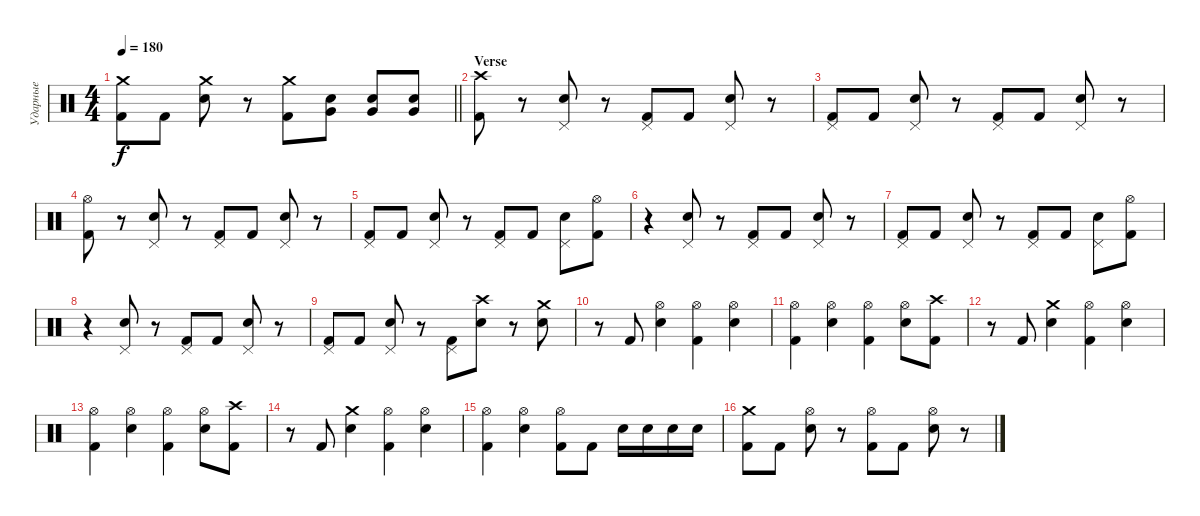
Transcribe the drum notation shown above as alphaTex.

\track ("Ударные" "Ударные") {instrument percussion}
\staff {score}
\articulation defaults
\ts (4 4)
\tempo 180
\clef neutral
\barLineRight lightlight
\ks c
("Crash medium (hit)" "Kick (hit) 2").8{dy f} "Kick (hit) 2".8 ("Crash medium (hit)" "Snare (hit) 2").8 r.8 ("Crash medium (hit)" "Kick (hit) 2").8 ("Snare (hit) 2" "Very Low Tom (hit)").8 ("Snare (hit) 2" "Very Low Tom (hit)").8 ("Snare (hit) 2" "Very Low Tom (hit)").8 |
\section ("" "Verse")
("Crash high (hit)" "Kick (hit) 2").8 r.8 ("Pedal Hi-Hat (hit)" "Snare (hit) 2").8 r.8 ("Pedal Hi-Hat (hit)" "Kick (hit) 2").8 "Kick (hit) 2".8 ("Pedal Hi-Hat (hit)" "Snare (hit) 2").8 r.8 |
("Pedal Hi-Hat (hit)" "Kick (hit) 2").8 "Kick (hit) 2".8 ("Pedal Hi-Hat (hit)" "Snare (hit) 2").8 r.8 ("Pedal Hi-Hat (hit)" "Kick (hit) 2").8 "Kick (hit) 2".8 ("Pedal Hi-Hat (hit)" "Snare (hit) 2").8 r.8 |
("Hi-Hat (open)" "Kick (hit) 2").8 r.8 ("Pedal Hi-Hat (hit)" "Snare (hit) 2").8 r.8 ("Pedal Hi-Hat (hit)" "Kick (hit) 2").8 "Kick (hit) 2".8 ("Pedal Hi-Hat (hit)" "Snare (hit) 2").8 r.8 |
("Pedal Hi-Hat (hit)" "Kick (hit) 2").8 "Kick (hit) 2".8 ("Pedal Hi-Hat (hit)" "Snare (hit) 2").8 r.8 ("Pedal Hi-Hat (hit)" "Kick (hit) 2").8 "Kick (hit) 2".8 ("Pedal Hi-Hat (hit)" "Snare (hit) 2").8 ("Hi-Hat (open)" "Kick (hit) 2").8 |
r.4 ("Pedal Hi-Hat (hit)" "Snare (hit) 2").8 r.8 ("Pedal Hi-Hat (hit)" "Kick (hit) 2").8 "Kick (hit) 2".8 ("Pedal Hi-Hat (hit)" "Snare (hit) 2").8 r.8 |
("Pedal Hi-Hat (hit)" "Kick (hit) 2").8 "Kick (hit) 2".8 ("Pedal Hi-Hat (hit)" "Snare (hit) 2").8 r.8 ("Pedal Hi-Hat (hit)" "Kick (hit) 2").8 "Kick (hit) 2".8 ("Pedal Hi-Hat (hit)" "Snare (hit) 2").8 ("Hi-Hat (open)" "Kick (hit) 2").8 |
r.4 ("Pedal Hi-Hat (hit)" "Snare (hit) 2").8 r.8 ("Pedal Hi-Hat (hit)" "Kick (hit) 2").8 "Kick (hit) 2".8 ("Pedal Hi-Hat (hit)" "Snare (hit) 2").8 r.8 |
("Pedal Hi-Hat (hit)" "Kick (hit) 2").8 "Kick (hit) 2".8 ("Pedal Hi-Hat (hit)" "Snare (hit) 2").8 r.8 ("Pedal Hi-Hat (hit)" "Kick (hit) 2").8 ("Crash high (hit)" "Snare (hit) 2").8 r.8 ("Crash medium (hit)" "Snare (hit) 2").8 |
r.8 "Kick (hit) 2".8 ("Hi-Hat (open)" "Snare (hit) 2").4 ("Hi-Hat (open)" "Kick (hit) 2").4 ("Hi-Hat (open)" "Snare (hit) 2").4 |
("Hi-Hat (open)" "Kick (hit) 2").4 ("Hi-Hat (open)" "Snare (hit) 2").4 ("Hi-Hat (open)" "Kick (hit) 2").4 ("Hi-Hat (open)" "Snare (hit) 2").8 ("Crash high (hit)" "Kick (hit) 2").8 |
r.8 "Kick (hit) 2".8 ("Crash medium (hit)" "Snare (hit) 2").4 ("Hi-Hat (open)" "Kick (hit) 2").4 ("Hi-Hat (open)" "Snare (hit) 2").4 |
("Hi-Hat (open)" "Kick (hit) 2").4 ("Hi-Hat (open)" "Snare (hit) 2").4 ("Hi-Hat (open)" "Kick (hit) 2").4 ("Hi-Hat (open)" "Snare (hit) 2").8 ("Crash high (hit)" "Kick (hit) 2").8 |
r.8 "Kick (hit) 2".8 ("Crash medium (hit)" "Snare (hit) 2").4 ("Hi-Hat (open)" "Kick (hit) 2").4 ("Hi-Hat (open)" "Snare (hit) 2").4 |
("Hi-Hat (open)" "Kick (hit) 2").4 ("Hi-Hat (open)" "Snare (hit) 2").4 ("Hi-Hat (open)" "Kick (hit) 2").8 "Kick (hit) 2".8 "Snare (hit) 2".16 "Snare (hit) 2".16 "Snare (hit) 2".16 "Snare (hit) 2".16 |
("Crash medium (hit)" "Kick (hit) 2").8 "Kick (hit) 2".8 ("Hi-Hat (open)" "Snare (hit) 2").8 r.8 ("Hi-Hat (open)" "Kick (hit) 2").8 "Kick (hit) 2".8 ("Hi-Hat (open)" "Snare (hit) 2").8 r.8
